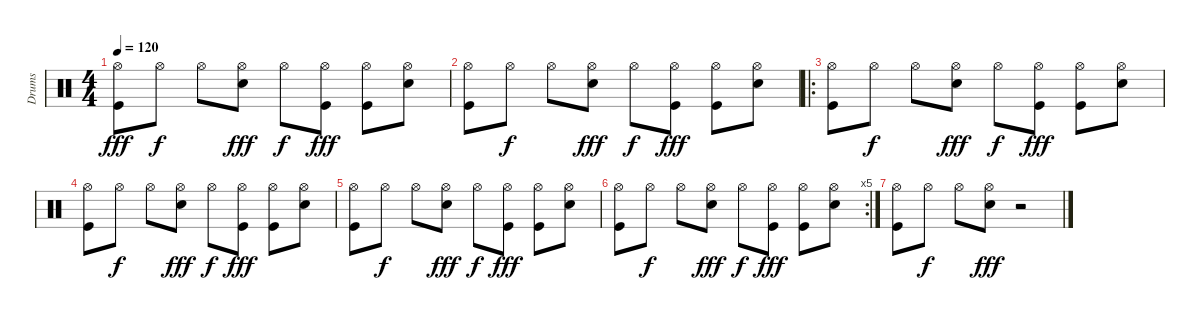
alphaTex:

\track ("Drums" "Drums") {instrument percussion}
\staff {score}
\articulation defaults
\ts (4 4)
\tempo 120
\clef neutral
\ks c
("Kick (hit)" "Hi-Hat (open)").8{dy fff} "Hi-Hat (open)".8{dy f} "Hi-Hat (open)".8 ("Snare (hit) 2" "Hi-Hat (open)").8{dy fff} "Hi-Hat (open)".8{dy f} ("Kick (hit)" "Hi-Hat (open)").8{dy fff} ("Kick (hit)" "Hi-Hat (open)").8 ("Snare (hit) 2" "Hi-Hat (open)").8 |
("Kick (hit)" "Hi-Hat (open)").8 "Hi-Hat (open)".8{dy f} "Hi-Hat (open)".8 ("Snare (hit) 2" "Hi-Hat (open)").8{dy fff} "Hi-Hat (open)".8{dy f} ("Kick (hit)" "Hi-Hat (open)").8{dy fff} ("Kick (hit)" "Hi-Hat (open)").8 ("Snare (hit) 2" "Hi-Hat (open)").8 |
\ro
("Kick (hit)" "Hi-Hat (open)").8 "Hi-Hat (open)".8{dy f} "Hi-Hat (open)".8 ("Snare (hit) 2" "Hi-Hat (open)").8{dy fff} "Hi-Hat (open)".8{dy f} ("Kick (hit)" "Hi-Hat (open)").8{dy fff} ("Kick (hit)" "Hi-Hat (open)").8 ("Snare (hit) 2" "Hi-Hat (open)").8 |
("Kick (hit)" "Hi-Hat (open)").8 "Hi-Hat (open)".8{dy f} "Hi-Hat (open)".8 ("Snare (hit) 2" "Hi-Hat (open)").8{dy fff} "Hi-Hat (open)".8{dy f} ("Kick (hit)" "Hi-Hat (open)").8{dy fff} ("Kick (hit)" "Hi-Hat (open)").8 ("Snare (hit) 2" "Hi-Hat (open)").8 |
("Kick (hit)" "Hi-Hat (open)").8 "Hi-Hat (open)".8{dy f} "Hi-Hat (open)".8 ("Snare (hit) 2" "Hi-Hat (open)").8{dy fff} "Hi-Hat (open)".8{dy f} ("Kick (hit)" "Hi-Hat (open)").8{dy fff} ("Kick (hit)" "Hi-Hat (open)").8 ("Snare (hit) 2" "Hi-Hat (open)").8 |
\rc 5
("Kick (hit)" "Hi-Hat (open)").8 "Hi-Hat (open)".8{dy f} "Hi-Hat (open)".8 ("Snare (hit) 2" "Hi-Hat (open)").8{dy fff} "Hi-Hat (open)".8{dy f} ("Kick (hit)" "Hi-Hat (open)").8{dy fff} ("Kick (hit)" "Hi-Hat (open)").8 ("Snare (hit) 2" "Hi-Hat (open)").8 |
("Kick (hit)" "Hi-Hat (open)").8 "Hi-Hat (open)".8{dy f} "Hi-Hat (open)".8 ("Snare (hit) 2" "Hi-Hat (open)").8{dy fff} r.2
